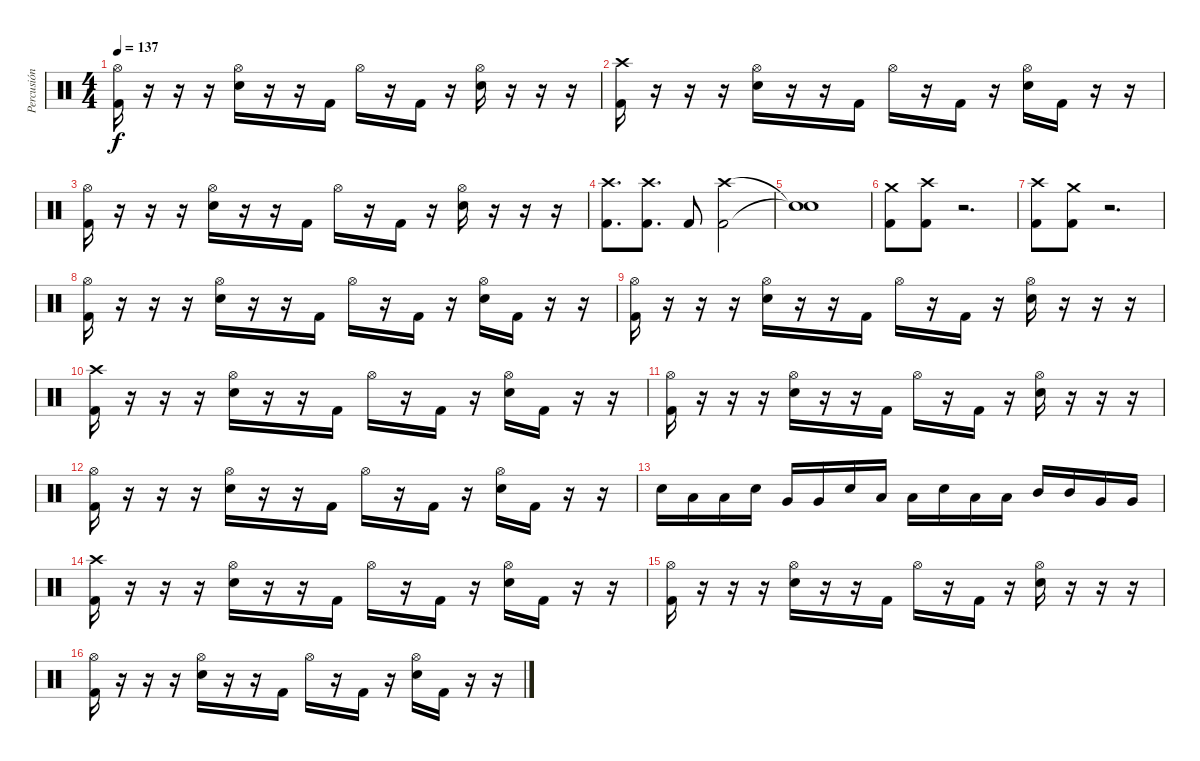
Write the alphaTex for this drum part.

\track ("Percusión" "Percusión") {instrument percussion}
\staff {score}
\articulation defaults
\ts (4 4)
\tempo 137
\clef neutral
\ks c
("Hi-Hat (open)" "Kick (hit) 2").16{dy f} r.16 r.16 r.16 ("Hi-Hat (open)" "Electric Snare (hit)").16 r.16 r.16 "Kick (hit) 2".16 "Hi-Hat (open)".16 r.16 "Kick (hit) 2".16 r.16 ("Hi-Hat (open)" "Electric Snare (hit)").16 r.16 r.16 r.16 |
("Crash high (hit)" "Kick (hit) 2").16 r.16 r.16 r.16 ("Hi-Hat (open)" "Electric Snare (hit)").16 r.16 r.16 "Kick (hit) 2".16 "Hi-Hat (open)".16 r.16 "Kick (hit) 2".16 r.16 ("Hi-Hat (open)" "Electric Snare (hit)").16 "Kick (hit) 2".16 r.16 r.16 |
("Hi-Hat (open)" "Kick (hit) 2").16 r.16 r.16 r.16 ("Hi-Hat (open)" "Electric Snare (hit)").16 r.16 r.16 "Kick (hit) 2".16 "Hi-Hat (open)".16 r.16 "Kick (hit) 2".16 r.16 ("Hi-Hat (open)" "Electric Snare (hit)").16 r.16 r.16 r.16 |
("Crash high (hit)" "Kick (hit) 2").8{d} ("Crash high (hit)" "Kick (hit) 2").8{d} "Kick (hit) 2".8 ("Crash high (hit)" "Kick (hit) 2").2 |
("Snare (hit)"{t} "Snare (hit)"{t}).1 |
("Crash medium (hit)" "Kick (hit) 2").8 ("Crash high (hit)" "Kick (hit) 2").8 r.2{d} |
("Crash high (hit)" "Kick (hit) 2").8 ("Crash medium (hit)" "Kick (hit) 2").8 r.2{d} |
("Hi-Hat (open)" "Kick (hit) 2").16 r.16 r.16 r.16 ("Hi-Hat (open)" "Electric Snare (hit)").16 r.16 r.16 "Kick (hit) 2".16 "Hi-Hat (open)".16 r.16 "Kick (hit) 2".16 r.16 ("Hi-Hat (open)" "Electric Snare (hit)").16 "Kick (hit) 2".16 r.16 r.16 |
("Hi-Hat (open)" "Kick (hit) 2").16 r.16 r.16 r.16 ("Hi-Hat (open)" "Electric Snare (hit)").16 r.16 r.16 "Kick (hit) 2".16 "Hi-Hat (open)".16 r.16 "Kick (hit) 2".16 r.16 ("Hi-Hat (open)" "Electric Snare (hit)").16 r.16 r.16 r.16 |
("Crash high (hit)" "Kick (hit) 2").16 r.16 r.16 r.16 ("Hi-Hat (open)" "Electric Snare (hit)").16 r.16 r.16 "Kick (hit) 2".16 "Hi-Hat (open)".16 r.16 "Kick (hit) 2".16 r.16 ("Hi-Hat (open)" "Electric Snare (hit)").16 "Kick (hit) 2".16 r.16 r.16 |
("Hi-Hat (open)" "Kick (hit) 2").16 r.16 r.16 r.16 ("Hi-Hat (open)" "Electric Snare (hit)").16 r.16 r.16 "Kick (hit) 2".16 "Hi-Hat (open)".16 r.16 "Kick (hit) 2".16 r.16 ("Hi-Hat (open)" "Electric Snare (hit)").16 r.16 r.16 r.16 |
("Hi-Hat (open)" "Kick (hit) 2").16 r.16 r.16 r.16 ("Hi-Hat (open)" "Electric Snare (hit)").16 r.16 r.16 "Kick (hit) 2".16 "Hi-Hat (open)".16 r.16 "Kick (hit) 2".16 r.16 ("Hi-Hat (open)" "Electric Snare (hit)").16 "Kick (hit) 2".16 r.16 r.16 |
"Electric Snare (hit)".16 "Low Tom (hit)".16 "Low Tom (hit)".16 "Electric Snare (hit)".16 "Very Low Tom (hit)".16 "Very Low Tom (hit)".16 "Electric Snare (hit)".16 "Low Tom (hit)".16 "Low Tom (hit)".16 "Electric Snare (hit)".16 "Low Tom (hit)".16 "Low Tom (hit)".16 "Mid Tom (hit)".16 "Mid Tom (hit)".16 "Very Low Tom (hit)".16 "Very Low Tom (hit)".16 |
("Crash high (hit)" "Kick (hit) 2").16 r.16 r.16 r.16 ("Hi-Hat (open)" "Electric Snare (hit)").16 r.16 r.16 "Kick (hit) 2".16 "Hi-Hat (open)".16 r.16 "Kick (hit) 2".16 r.16 ("Hi-Hat (open)" "Electric Snare (hit)").16 "Kick (hit) 2".16 r.16 r.16 |
("Hi-Hat (open)" "Kick (hit) 2").16 r.16 r.16 r.16 ("Hi-Hat (open)" "Electric Snare (hit)").16 r.16 r.16 "Kick (hit) 2".16 "Hi-Hat (open)".16 r.16 "Kick (hit) 2".16 r.16 ("Hi-Hat (open)" "Electric Snare (hit)").16 r.16 r.16 r.16 |
("Hi-Hat (open)" "Kick (hit) 2").16 r.16 r.16 r.16 ("Hi-Hat (open)" "Electric Snare (hit)").16 r.16 r.16 "Kick (hit) 2".16 "Hi-Hat (open)".16 r.16 "Kick (hit) 2".16 r.16 ("Hi-Hat (open)" "Electric Snare (hit)").16 "Kick (hit) 2".16 r.16 r.16
